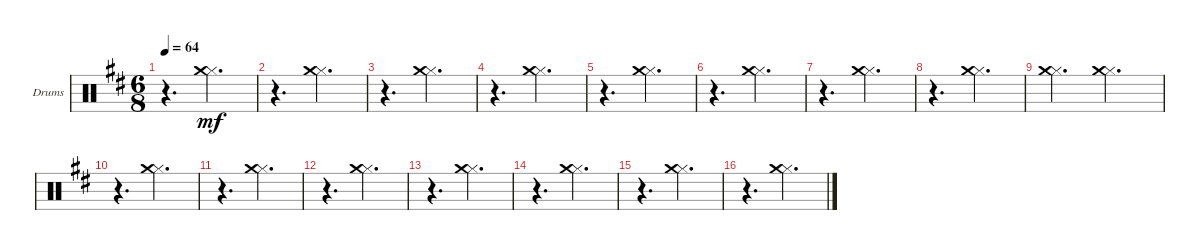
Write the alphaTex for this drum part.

\defaultSystemsLayout 4
\bracketExtendMode groupsimilarinstruments
\firstSystemTrackNameOrientation horizontal
\otherSystemsTrackNameOrientation horizontal
\track ("Drumkit" "Drums") {instrument percussion}
\staff {score}
\articulation defaults
\ts (6 8)
\tempo 64
\clef neutral
\ks d
r.4{d dy mf} ("Hi-Hat (closed)" "Crash medium (hit)").4{d} |
r.4{d} ("Hi-Hat (closed)" "Crash medium (hit)").4{d} |
r.4{d} ("Hi-Hat (closed)" "Crash medium (hit)").4{d} |
r.4{d} ("Hi-Hat (closed)" "Crash medium (hit)").4{d} |
r.4{d} ("Hi-Hat (closed)" "Crash medium (hit)").4{d} |
r.4{d} ("Hi-Hat (closed)" "Crash medium (hit)").4{d} |
r.4{d} ("Hi-Hat (closed)" "Crash medium (hit)").4{d} |
r.4{d} ("Hi-Hat (closed)" "Crash medium (hit)").4{d} |
("Hi-Hat (closed)" "Crash medium (hit)").4{d} ("Hi-Hat (closed)" "Crash medium (hit)").4{d} |
r.4{d} ("Hi-Hat (closed)" "Crash medium (hit)").4{d} |
r.4{d} ("Hi-Hat (closed)" "Crash medium (hit)").4{d} |
r.4{d} ("Hi-Hat (closed)" "Crash medium (hit)").4{d} |
r.4{d} ("Hi-Hat (closed)" "Crash medium (hit)").4{d} |
r.4{d} ("Hi-Hat (closed)" "Crash medium (hit)").4{d} |
r.4{d} ("Hi-Hat (closed)" "Crash medium (hit)").4{d} |
r.4{d} ("Hi-Hat (closed)" "Crash medium (hit)").4{d}
